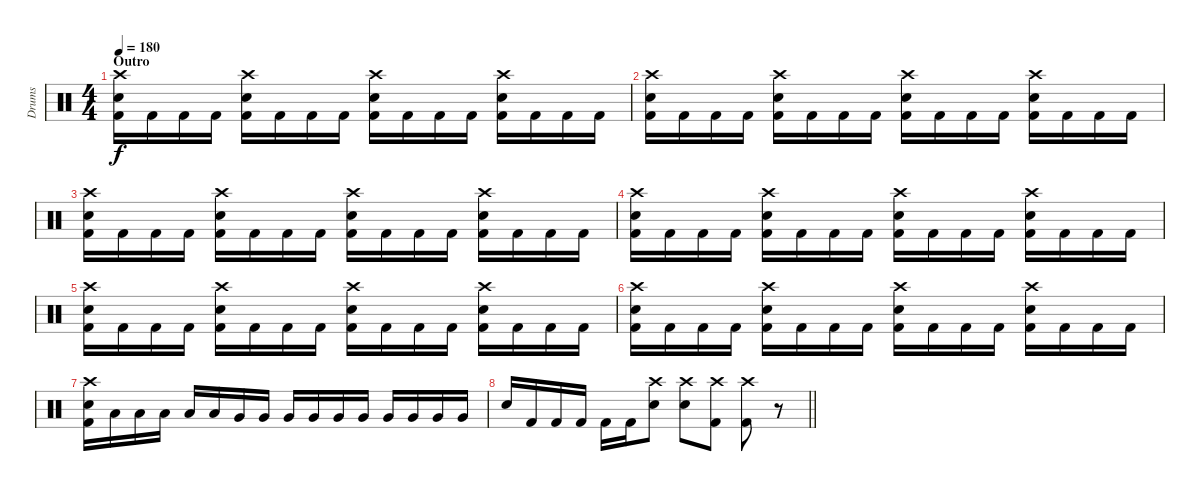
\track ("Drums" "Drums") {instrument percussion}
\staff {score}
\articulation defaults
\ts (4 4)
\section ("" "Outro")
\tempo 180
\clef neutral
\ks c
("Crash high (hit)" "Electric Snare (hit)" "Kick (hit) 2").16{dy f} "Kick (hit) 2".16 "Kick (hit) 2".16 "Kick (hit) 2".16 ("Crash high (hit)" "Electric Snare (hit)" "Kick (hit) 2").16 "Kick (hit) 2".16 "Kick (hit) 2".16 "Kick (hit) 2".16 ("Crash high (hit)" "Electric Snare (hit)" "Kick (hit) 2").16 "Kick (hit) 2".16 "Kick (hit) 2".16 "Kick (hit) 2".16 ("Crash high (hit)" "Electric Snare (hit)" "Kick (hit) 2").16 "Kick (hit) 2".16 "Kick (hit) 2".16 "Kick (hit) 2".16 |
("Crash high (hit)" "Electric Snare (hit)" "Kick (hit) 2").16 "Kick (hit) 2".16 "Kick (hit) 2".16 "Kick (hit) 2".16 ("Crash high (hit)" "Electric Snare (hit)" "Kick (hit) 2").16 "Kick (hit) 2".16 "Kick (hit) 2".16 "Kick (hit) 2".16 ("Crash high (hit)" "Electric Snare (hit)" "Kick (hit) 2").16 "Kick (hit) 2".16 "Kick (hit) 2".16 "Kick (hit) 2".16 ("Crash high (hit)" "Electric Snare (hit)" "Kick (hit) 2").16 "Kick (hit) 2".16 "Kick (hit) 2".16 "Kick (hit) 2".16 |
("Crash high (hit)" "Electric Snare (hit)" "Kick (hit) 2").16 "Kick (hit) 2".16 "Kick (hit) 2".16 "Kick (hit) 2".16 ("Crash high (hit)" "Electric Snare (hit)" "Kick (hit) 2").16 "Kick (hit) 2".16 "Kick (hit) 2".16 "Kick (hit) 2".16 ("Crash high (hit)" "Electric Snare (hit)" "Kick (hit) 2").16 "Kick (hit) 2".16 "Kick (hit) 2".16 "Kick (hit) 2".16 ("Crash high (hit)" "Electric Snare (hit)" "Kick (hit) 2").16 "Kick (hit) 2".16 "Kick (hit) 2".16 "Kick (hit) 2".16 |
("Crash high (hit)" "Electric Snare (hit)" "Kick (hit) 2").16 "Kick (hit) 2".16 "Kick (hit) 2".16 "Kick (hit) 2".16 ("Crash high (hit)" "Electric Snare (hit)" "Kick (hit) 2").16 "Kick (hit) 2".16 "Kick (hit) 2".16 "Kick (hit) 2".16 ("Crash high (hit)" "Electric Snare (hit)" "Kick (hit) 2").16 "Kick (hit) 2".16 "Kick (hit) 2".16 "Kick (hit) 2".16 ("Crash high (hit)" "Electric Snare (hit)" "Kick (hit) 2").16 "Kick (hit) 2".16 "Kick (hit) 2".16 "Kick (hit) 2".16 |
("Crash high (hit)" "Electric Snare (hit)" "Kick (hit) 2").16 "Kick (hit) 2".16 "Kick (hit) 2".16 "Kick (hit) 2".16 ("Crash high (hit)" "Electric Snare (hit)" "Kick (hit) 2").16 "Kick (hit) 2".16 "Kick (hit) 2".16 "Kick (hit) 2".16 ("Crash high (hit)" "Electric Snare (hit)" "Kick (hit) 2").16 "Kick (hit) 2".16 "Kick (hit) 2".16 "Kick (hit) 2".16 ("Crash high (hit)" "Electric Snare (hit)" "Kick (hit) 2").16 "Kick (hit) 2".16 "Kick (hit) 2".16 "Kick (hit) 2".16 |
("Crash high (hit)" "Electric Snare (hit)" "Kick (hit) 2").16 "Kick (hit) 2".16 "Kick (hit) 2".16 "Kick (hit) 2".16 ("Crash high (hit)" "Electric Snare (hit)" "Kick (hit) 2").16 "Kick (hit) 2".16 "Kick (hit) 2".16 "Kick (hit) 2".16 ("Crash high (hit)" "Electric Snare (hit)" "Kick (hit) 2").16 "Kick (hit) 2".16 "Kick (hit) 2".16 "Kick (hit) 2".16 ("Crash high (hit)" "Electric Snare (hit)" "Kick (hit) 2").16 "Kick (hit) 2".16 "Kick (hit) 2".16 "Kick (hit) 2".16 |
("Crash high (hit)" "Electric Snare (hit)" "Kick (hit) 2").16 "Low Tom (hit)".16 "Low Tom (hit)".16 "Low Tom (hit)".16 "Low Tom (hit)".16 "Low Tom (hit)".16 "Very Low Tom (hit)".16 "Very Low Tom (hit)".16 "Very Low Tom (hit)".16 "Very Low Tom (hit)".16 "Very Low Tom (hit)".16 "Very Low Tom (hit)".16 "Very Low Tom (hit)".16 "Very Low Tom (hit)".16 "Very Low Tom (hit)".16 "Very Low Tom (hit)".16 |
\barLineRight lightlight "Electric Snare (hit)".16 "Kick (hit) 2".16 "Kick (hit) 2".16 "Kick (hit) 2".16 "Kick (hit) 2".16 "Kick (hit) 2".16
("Crash high (hit)" "Electric Snare (hit)").8 ("Crash high (hit)" "Electric Snare (hit)").8 ("Crash high (hit)" "Kick (hit) 2").8 ("Crash high (hit)" "Kick (hit) 2").8 r.8
